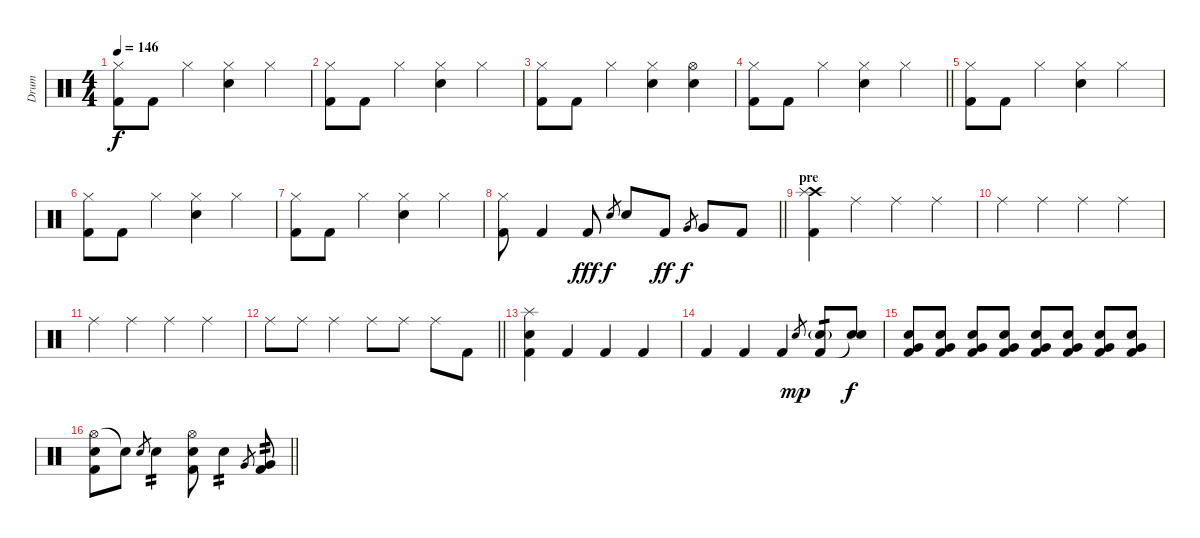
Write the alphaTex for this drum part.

\track ("Drum" "Drum") {instrument percussion}
\staff {score}
\articulation defaults
\ts (4 4)
\tempo 146
\clef neutral
\ks c
("Hi-Hat (closed)" "Kick (hit) 2").8{dy f} "Kick (hit) 2".8 "Hi-Hat (closed)".4 ("Hi-Hat (closed)" "Electric Snare (hit)").4 "Hi-Hat (closed)".4 |
("Hi-Hat (closed)" "Kick (hit) 2").8 "Kick (hit) 2".8 "Hi-Hat (closed)".4 ("Hi-Hat (closed)" "Electric Snare (hit)").4 "Hi-Hat (closed)".4 |
("Hi-Hat (closed)" "Kick (hit) 2").8 "Kick (hit) 2".8 "Hi-Hat (closed)".4 ("Hi-Hat (closed)" "Electric Snare (hit)").4 ("Hi-Hat (open)" "Electric Snare (hit)").4 |
\barLineRight lightlight
("Hi-Hat (closed)" "Kick (hit) 2").8 "Kick (hit) 2".8 "Hi-Hat (closed)".4 ("Hi-Hat (closed)" "Electric Snare (hit)").4 "Hi-Hat (closed)".4 |
("Hi-Hat (closed)" "Kick (hit) 2").8 "Kick (hit) 2".8 "Hi-Hat (closed)".4 ("Hi-Hat (closed)" "Electric Snare (hit)").4 "Hi-Hat (closed)".4 |
("Hi-Hat (closed)" "Kick (hit) 2").8 "Kick (hit) 2".8 "Hi-Hat (closed)".4 ("Hi-Hat (closed)" "Electric Snare (hit)").4 "Hi-Hat (closed)".4 |
("Hi-Hat (closed)" "Kick (hit) 2").8 "Kick (hit) 2".8 "Hi-Hat (closed)".4 ("Hi-Hat (closed)" "Electric Snare (hit)").4 "Hi-Hat (closed)".4 |
\barLineRight lightlight
("Hi-Hat (closed)" "Kick (hit) 2").8 "Kick (hit) 2".4 "Kick (hit) 2".8{dy fff} "Electric Snare (hit)".8{gr dy f} "Electric Snare (hit)".8 "Kick (hit) 2".8{dy ff} "Very Low Tom (hit)".8{gr dy f} "Very Low Tom (hit)".8 "Kick (hit) 2".8 |
\section ("" "pre")
("Crash high (hit)" "Splash (hit)" "Kick (hit) 2").4 "Ride (middle)".4 "Ride (middle)".4 "Ride (middle)".4 |
"Ride (middle)".4 "Ride (middle)".4 "Ride (middle)".4 "Ride (middle)".4 |
"Ride (middle)".4 "Ride (middle)".4 "Ride (middle)".4 "Ride (middle)".4 |
\barLineRight lightlight "Ride (middle)".8 "Ride (middle)".8 "Ride (middle)".4 "Ride (middle)".8 "Ride (middle)".8 "Ride (middle)".8 "Kick (hit) 2".8
|
("Splash (hit)" "Electric Snare (hit)" "Kick (hit) 2").4 "Kick (hit) 2".4 "Kick (hit) 2".4 "Kick (hit) 2".4 |
"Kick (hit) 2".4 "Kick (hit) 2".4 "Kick (hit) 2".4 "Electric Snare (hit)".8{gr dy mp} ("Electric Snare (hit)"{g} "Kick (hit) 2").8{tp 1} ("Electric Snare (hit)" "Snare (hit)"{t}).8{dy f} |
("Electric Snare (hit)" "Very Low Tom (hit)" "Kick (hit) 2").8 ("Electric Snare (hit)" "Very Low Tom (hit)" "Kick (hit) 2").8 ("Electric Snare (hit)" "Very Low Tom (hit)" "Kick (hit) 2").8 ("Electric Snare (hit)" "Very Low Tom (hit)" "Kick (hit) 2").8 ("Electric Snare (hit)" "Very Low Tom (hit)" "Kick (hit) 2").8 ("Electric Snare (hit)" "Very Low Tom (hit)" "Kick (hit) 2").8 ("Electric Snare (hit)" "Very Low Tom (hit)" "Kick (hit) 2").8 ("Electric Snare (hit)" "Very Low Tom (hit)" "Kick (hit) 2").8 |
\barLineRight lightlight
("Hi-Hat (open)" "Electric Snare (hit)" "Kick (hit) 2").8 "Snare (hit)"{t}.8 "Electric Snare (hit)".8{gr} "Electric Snare (hit)".4{tp 2} ("Hi-Hat (open)" "Electric Snare (hit)" "Kick (hit) 2").8 "Electric Snare (hit)".4{tp 2} "Very Low Tom (hit)".8{gr} ("Very Low Tom (hit)" "Kick (hit) 2").8{tp 2}
